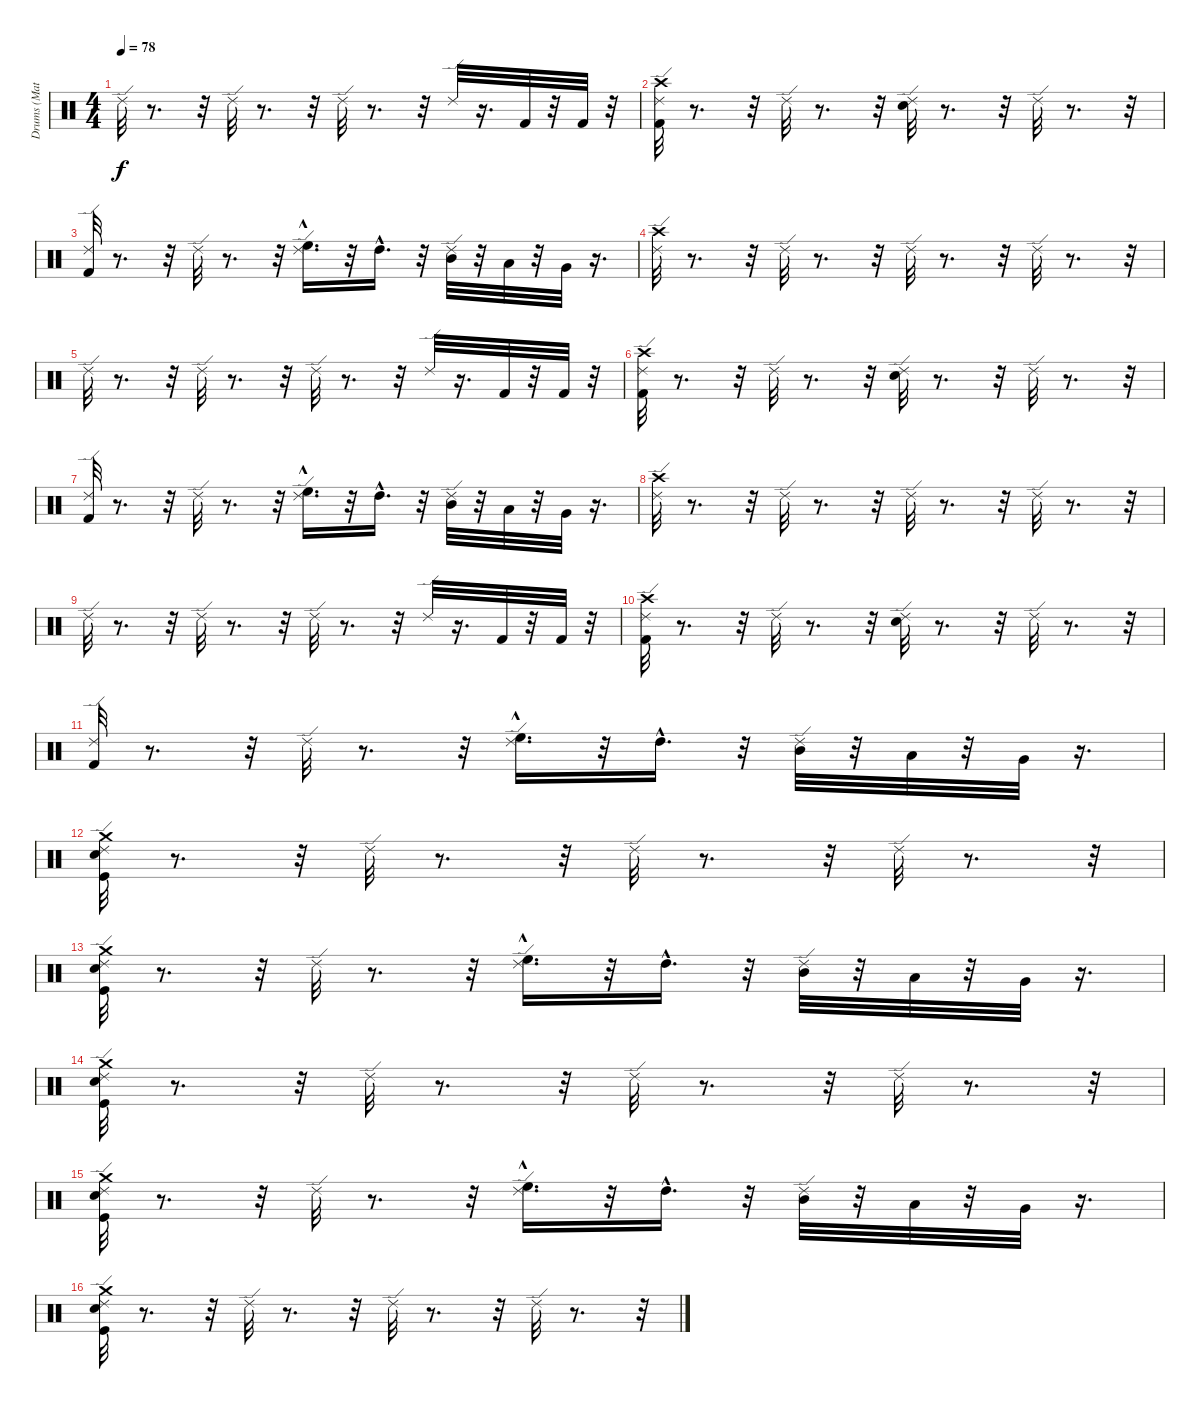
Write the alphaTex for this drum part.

\track ("Drums (Matt)" "Drums (Mat") {instrument percussion}
\staff {score}
\articulation defaults
\ts (4 4)
\tempo 78
\clef neutral
\ks c "Ride (edge) 2".32{dy f}
r.8{d} r.32 "Ride (edge) 2".32 r.8{d} r.32 "Ride (edge) 2".32 r.8{d} r.32 "Ride (edge) 2".32 r.16{d} "Kick (hit) 2".32 r.32 "Kick (hit) 2".32 r.32 |
("Ride (edge) 2" "Kick (hit) 2" "Crash high (hit)").32 r.8{d} r.32 "Ride (edge) 2".32 r.8{d} r.32 ("Ride (edge) 2" "Snare (hit) 2").32 r.8{d} r.32 "Ride (edge) 2".32 r.8{d} r.32 |
("Ride (edge) 2" "Kick (hit) 2").32 r.8{d} r.32 "Ride (edge) 2".32 r.8{d} r.32 ("Ride (edge) 2" "High Floor Tom (hit)"{hac}).16{d} r.32 "High Tom (hit)"{hac}.16{d} r.32 ("Ride (edge) 2" "Mid Tom (hit)").32 r.32 "Low Tom (hit)".32 r.32 "Very Low Tom (hit)".32 r.16{d} |
("Ride (edge) 2" "Crash high (hit)").32 r.8{d} r.32 "Ride (edge) 2".32 r.8{d} r.32 "Ride (edge) 2".32 r.8{d} r.32 "Ride (edge) 2".32 r.8{d} r.32 |
"Ride (edge) 2".32 r.8{d} r.32 "Ride (edge) 2".32 r.8{d} r.32 "Ride (edge) 2".32 r.8{d} r.32 "Ride (edge) 2".32 r.16{d} "Kick (hit) 2".32 r.32 "Kick (hit) 2".32 r.32 |
("Ride (edge) 2" "Kick (hit) 2" "Crash high (hit)").32 r.8{d} r.32 "Ride (edge) 2".32 r.8{d} r.32 ("Ride (edge) 2" "Snare (hit) 2").32 r.8{d} r.32 "Ride (edge) 2".32 r.8{d} r.32 |
("Ride (edge) 2" "Kick (hit) 2").32 r.8{d} r.32 "Ride (edge) 2".32 r.8{d} r.32 ("Ride (edge) 2" "High Floor Tom (hit)"{hac}).16{d} r.32 "High Tom (hit)"{hac}.16{d} r.32 ("Ride (edge) 2" "Mid Tom (hit)").32 r.32 "Low Tom (hit)".32 r.32 "Very Low Tom (hit)".32 r.16{d} |
("Ride (edge) 2" "Crash high (hit)").32 r.8{d} r.32 "Ride (edge) 2".32 r.8{d} r.32 "Ride (edge) 2".32 r.8{d} r.32 "Ride (edge) 2".32 r.8{d} r.32 |
"Ride (edge) 2".32 r.8{d} r.32 "Ride (edge) 2".32 r.8{d} r.32 "Ride (edge) 2".32 r.8{d} r.32 "Ride (edge) 2".32 r.16{d} "Kick (hit) 2".32 r.32 "Kick (hit) 2".32 r.32 |
("Ride (edge) 2" "Kick (hit) 2" "Crash high (hit)").32 r.8{d} r.32 "Ride (edge) 2".32 r.8{d} r.32 ("Ride (edge) 2" "Snare (hit) 2").32 r.8{d} r.32 "Ride (edge) 2".32 r.8{d} r.32 |
("Ride (edge) 2" "Kick (hit) 2").32 r.8{d} r.32 "Ride (edge) 2".32 r.8{d} r.32 ("Ride (edge) 2" "High Floor Tom (hit)"{hac}).16{d} r.32 "High Tom (hit)"{hac}.16{d} r.32 ("Ride (edge) 2" "Mid Tom (hit)").32 r.32 "Low Tom (hit)".32 r.32 "Very Low Tom (hit)".32 r.16{d} |
("Kick (hit)" "Snare (hit) 2" "Crash medium (hit)" "Ride (edge) 2").32 r.8{d} r.32 "Ride (edge) 2".32 r.8{d} r.32 "Ride (edge) 2".32 r.8{d} r.32 "Ride (edge) 2".32 r.8{d} r.32 |
("Kick (hit)" "Snare (hit) 2" "Crash medium (hit)" "Ride (edge) 2").32 r.8{d} r.32 "Ride (edge) 2".32 r.8{d} r.32 ("Ride (edge) 2" "High Floor Tom (hit)"{hac}).16{d} r.32 "High Tom (hit)"{hac}.16{d} r.32 ("Ride (edge) 2" "Mid Tom (hit)").32 r.32 "Low Tom (hit)".32 r.32 "Very Low Tom (hit)".32 r.16{d} |
("Kick (hit)" "Snare (hit) 2" "Crash medium (hit)" "Ride (edge) 2").32 r.8{d} r.32 "Ride (edge) 2".32 r.8{d} r.32 "Ride (edge) 2".32 r.8{d} r.32 "Ride (edge) 2".32 r.8{d} r.32 |
("Kick (hit)" "Snare (hit) 2" "Crash medium (hit)" "Ride (edge) 2").32 r.8{d} r.32 "Ride (edge) 2".32 r.8{d} r.32 ("Ride (edge) 2" "High Floor Tom (hit)"{hac}).16{d} r.32 "High Tom (hit)"{hac}.16{d} r.32 ("Ride (edge) 2" "Mid Tom (hit)").32 r.32 "Low Tom (hit)".32 r.32 "Very Low Tom (hit)".32 r.16{d} |
("Kick (hit)" "Snare (hit) 2" "Crash medium (hit)" "Ride (edge) 2").32 r.8{d} r.32 "Ride (edge) 2".32 r.8{d} r.32 "Ride (edge) 2".32 r.8{d} r.32 "Ride (edge) 2".32 r.8{d} r.32
